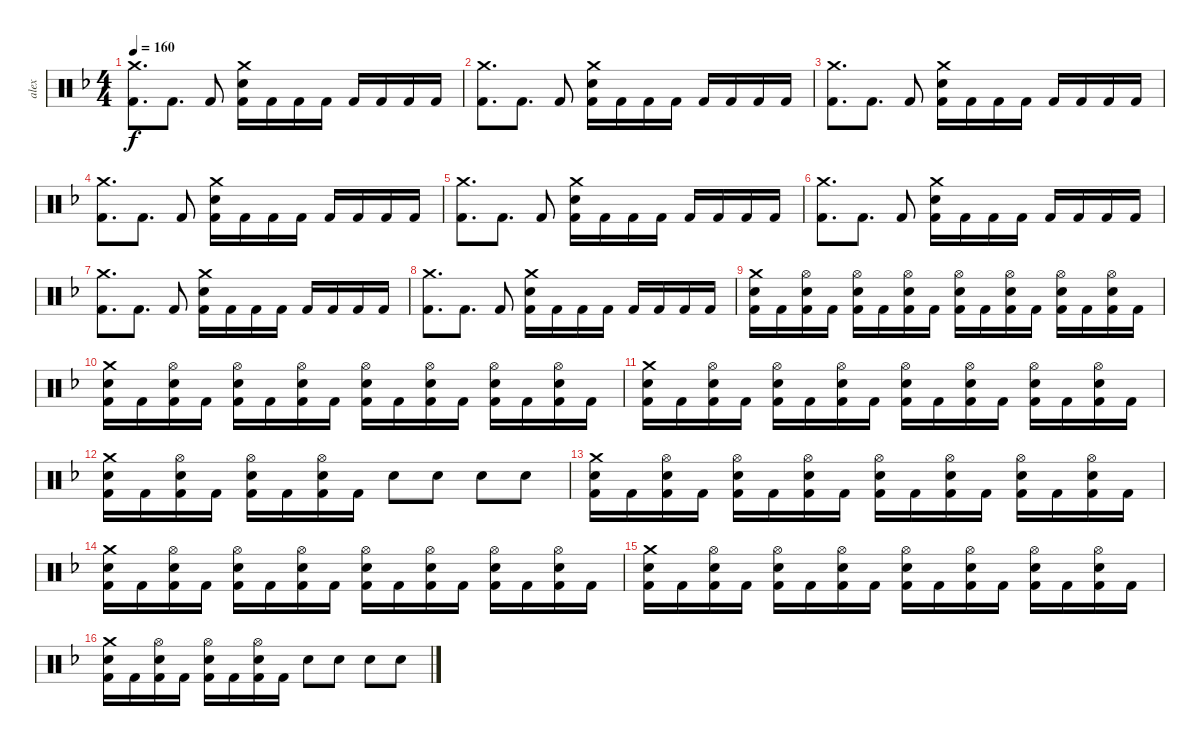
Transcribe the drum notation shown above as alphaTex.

\track ("alex" "alex") {instrument percussion}
\staff {score}
\articulation defaults
\ts (4 4)
\tempo 160
\clef neutral
\ks f
("Crash medium (hit)" "Kick (hit) 2").8{d dy f} "Kick (hit) 2".8{d} "Kick (hit) 2".8 ("Electric Snare (hit)" "Crash medium (hit)" "Kick (hit) 2").16 "Kick (hit) 2".16 "Kick (hit) 2".16 "Kick (hit) 2".16 "Kick (hit) 2".16 "Kick (hit) 2".16 "Kick (hit) 2".16 "Kick (hit) 2".16 |
("Crash medium (hit)" "Kick (hit) 2").8{d} "Kick (hit) 2".8{d} "Kick (hit) 2".8 ("Electric Snare (hit)" "Crash medium (hit)" "Kick (hit) 2").16 "Kick (hit) 2".16 "Kick (hit) 2".16 "Kick (hit) 2".16 "Kick (hit) 2".16 "Kick (hit) 2".16 "Kick (hit) 2".16 "Kick (hit) 2".16 |
("Crash medium (hit)" "Kick (hit) 2").8{d} "Kick (hit) 2".8{d} "Kick (hit) 2".8 ("Electric Snare (hit)" "Crash medium (hit)" "Kick (hit) 2").16 "Kick (hit) 2".16 "Kick (hit) 2".16 "Kick (hit) 2".16 "Kick (hit) 2".16 "Kick (hit) 2".16 "Kick (hit) 2".16 "Kick (hit) 2".16 |
("Crash medium (hit)" "Kick (hit) 2").8{d} "Kick (hit) 2".8{d} "Kick (hit) 2".8 ("Electric Snare (hit)" "Crash medium (hit)" "Kick (hit) 2").16 "Kick (hit) 2".16 "Kick (hit) 2".16 "Kick (hit) 2".16 "Kick (hit) 2".16 "Kick (hit) 2".16 "Kick (hit) 2".16 "Kick (hit) 2".16 |
("Crash medium (hit)" "Kick (hit) 2").8{d} "Kick (hit) 2".8{d} "Kick (hit) 2".8 ("Electric Snare (hit)" "Crash medium (hit)" "Kick (hit) 2").16 "Kick (hit) 2".16 "Kick (hit) 2".16 "Kick (hit) 2".16 "Kick (hit) 2".16 "Kick (hit) 2".16 "Kick (hit) 2".16 "Kick (hit) 2".16 |
("Crash medium (hit)" "Kick (hit) 2").8{d} "Kick (hit) 2".8{d} "Kick (hit) 2".8 ("Electric Snare (hit)" "Crash medium (hit)" "Kick (hit) 2").16 "Kick (hit) 2".16 "Kick (hit) 2".16 "Kick (hit) 2".16 "Kick (hit) 2".16 "Kick (hit) 2".16 "Kick (hit) 2".16 "Kick (hit) 2".16 |
("Crash medium (hit)" "Kick (hit) 2").8{d} "Kick (hit) 2".8{d} "Kick (hit) 2".8 ("Electric Snare (hit)" "Crash medium (hit)" "Kick (hit) 2").16 "Kick (hit) 2".16 "Kick (hit) 2".16 "Kick (hit) 2".16 "Kick (hit) 2".16 "Kick (hit) 2".16 "Kick (hit) 2".16 "Kick (hit) 2".16 |
("Crash medium (hit)" "Kick (hit) 2").8{d} "Kick (hit) 2".8{d} "Kick (hit) 2".8 ("Electric Snare (hit)" "Crash medium (hit)" "Kick (hit) 2").16 "Kick (hit) 2".16 "Kick (hit) 2".16 "Kick (hit) 2".16 "Kick (hit) 2".16 "Kick (hit) 2".16 "Kick (hit) 2".16 "Kick (hit) 2".16 |
("Crash medium (hit)" "Kick (hit) 2" "Electric Snare (hit)").16 "Kick (hit) 2".16 ("Hi-Hat (open)" "Kick (hit) 2" "Electric Snare (hit)").16 "Kick (hit) 2".16 ("Hi-Hat (open)" "Kick (hit) 2" "Electric Snare (hit)").16 "Kick (hit) 2".16 ("Hi-Hat (open)" "Kick (hit) 2" "Electric Snare (hit)").16 "Kick (hit) 2".16 ("Hi-Hat (open)" "Kick (hit) 2" "Electric Snare (hit)").16 "Kick (hit) 2".16 ("Hi-Hat (open)" "Kick (hit) 2" "Electric Snare (hit)").16 "Kick (hit) 2".16 ("Hi-Hat (open)" "Kick (hit) 2" "Electric Snare (hit)").16 "Kick (hit) 2".16 ("Hi-Hat (open)" "Kick (hit) 2" "Electric Snare (hit)").16 "Kick (hit) 2".16 |
("Crash medium (hit)" "Kick (hit) 2" "Electric Snare (hit)").16 "Kick (hit) 2".16 ("Hi-Hat (open)" "Kick (hit) 2" "Electric Snare (hit)").16 "Kick (hit) 2".16 ("Hi-Hat (open)" "Kick (hit) 2" "Electric Snare (hit)").16 "Kick (hit) 2".16 ("Hi-Hat (open)" "Kick (hit) 2" "Electric Snare (hit)").16 "Kick (hit) 2".16 ("Hi-Hat (open)" "Kick (hit) 2" "Electric Snare (hit)").16 "Kick (hit) 2".16 ("Hi-Hat (open)" "Kick (hit) 2" "Electric Snare (hit)").16 "Kick (hit) 2".16 ("Hi-Hat (open)" "Kick (hit) 2" "Electric Snare (hit)").16 "Kick (hit) 2".16 ("Hi-Hat (open)" "Kick (hit) 2" "Electric Snare (hit)").16 "Kick (hit) 2".16 |
("Crash medium (hit)" "Kick (hit) 2" "Electric Snare (hit)").16 "Kick (hit) 2".16 ("Hi-Hat (open)" "Kick (hit) 2" "Electric Snare (hit)").16 "Kick (hit) 2".16 ("Hi-Hat (open)" "Kick (hit) 2" "Electric Snare (hit)").16 "Kick (hit) 2".16 ("Hi-Hat (open)" "Kick (hit) 2" "Electric Snare (hit)").16 "Kick (hit) 2".16 ("Hi-Hat (open)" "Kick (hit) 2" "Electric Snare (hit)").16 "Kick (hit) 2".16 ("Hi-Hat (open)" "Kick (hit) 2" "Electric Snare (hit)").16 "Kick (hit) 2".16 ("Hi-Hat (open)" "Kick (hit) 2" "Electric Snare (hit)").16 "Kick (hit) 2".16 ("Hi-Hat (open)" "Kick (hit) 2" "Electric Snare (hit)").16 "Kick (hit) 2".16 |
("Crash medium (hit)" "Kick (hit) 2" "Electric Snare (hit)").16 "Kick (hit) 2".16 ("Hi-Hat (open)" "Kick (hit) 2" "Electric Snare (hit)").16 "Kick (hit) 2".16 ("Hi-Hat (open)" "Kick (hit) 2" "Electric Snare (hit)").16 "Kick (hit) 2".16 ("Hi-Hat (open)" "Kick (hit) 2" "Electric Snare (hit)").16 "Kick (hit) 2".16 "Electric Snare (hit)".8 "Electric Snare (hit)".8 "Electric Snare (hit)".8 "Electric Snare (hit)".8 |
("Crash medium (hit)" "Kick (hit) 2" "Electric Snare (hit)").16 "Kick (hit) 2".16 ("Hi-Hat (open)" "Kick (hit) 2" "Electric Snare (hit)").16 "Kick (hit) 2".16 ("Hi-Hat (open)" "Kick (hit) 2" "Electric Snare (hit)").16 "Kick (hit) 2".16 ("Hi-Hat (open)" "Kick (hit) 2" "Electric Snare (hit)").16 "Kick (hit) 2".16 ("Hi-Hat (open)" "Kick (hit) 2" "Electric Snare (hit)").16 "Kick (hit) 2".16 ("Hi-Hat (open)" "Kick (hit) 2" "Electric Snare (hit)").16 "Kick (hit) 2".16 ("Hi-Hat (open)" "Kick (hit) 2" "Electric Snare (hit)").16 "Kick (hit) 2".16 ("Hi-Hat (open)" "Kick (hit) 2" "Electric Snare (hit)").16 "Kick (hit) 2".16 |
("Crash medium (hit)" "Kick (hit) 2" "Electric Snare (hit)").16 "Kick (hit) 2".16 ("Hi-Hat (open)" "Kick (hit) 2" "Electric Snare (hit)").16 "Kick (hit) 2".16 ("Hi-Hat (open)" "Kick (hit) 2" "Electric Snare (hit)").16 "Kick (hit) 2".16 ("Hi-Hat (open)" "Kick (hit) 2" "Electric Snare (hit)").16 "Kick (hit) 2".16 ("Hi-Hat (open)" "Kick (hit) 2" "Electric Snare (hit)").16 "Kick (hit) 2".16 ("Hi-Hat (open)" "Kick (hit) 2" "Electric Snare (hit)").16 "Kick (hit) 2".16 ("Hi-Hat (open)" "Kick (hit) 2" "Electric Snare (hit)").16 "Kick (hit) 2".16 ("Hi-Hat (open)" "Kick (hit) 2" "Electric Snare (hit)").16 "Kick (hit) 2".16 |
("Crash medium (hit)" "Kick (hit) 2" "Electric Snare (hit)").16 "Kick (hit) 2".16 ("Hi-Hat (open)" "Kick (hit) 2" "Electric Snare (hit)").16 "Kick (hit) 2".16 ("Hi-Hat (open)" "Kick (hit) 2" "Electric Snare (hit)").16 "Kick (hit) 2".16 ("Hi-Hat (open)" "Kick (hit) 2" "Electric Snare (hit)").16 "Kick (hit) 2".16 ("Hi-Hat (open)" "Kick (hit) 2" "Electric Snare (hit)").16 "Kick (hit) 2".16 ("Hi-Hat (open)" "Kick (hit) 2" "Electric Snare (hit)").16 "Kick (hit) 2".16 ("Hi-Hat (open)" "Kick (hit) 2" "Electric Snare (hit)").16 "Kick (hit) 2".16 ("Hi-Hat (open)" "Kick (hit) 2" "Electric Snare (hit)").16 "Kick (hit) 2".16 |
("Crash medium (hit)" "Kick (hit) 2" "Electric Snare (hit)").16 "Kick (hit) 2".16 ("Hi-Hat (open)" "Kick (hit) 2" "Electric Snare (hit)").16 "Kick (hit) 2".16 ("Hi-Hat (open)" "Kick (hit) 2" "Electric Snare (hit)").16 "Kick (hit) 2".16 ("Hi-Hat (open)" "Kick (hit) 2" "Electric Snare (hit)").16 "Kick (hit) 2".16 "Electric Snare (hit)".8 "Electric Snare (hit)".8 "Electric Snare (hit)".8 "Electric Snare (hit)".8
